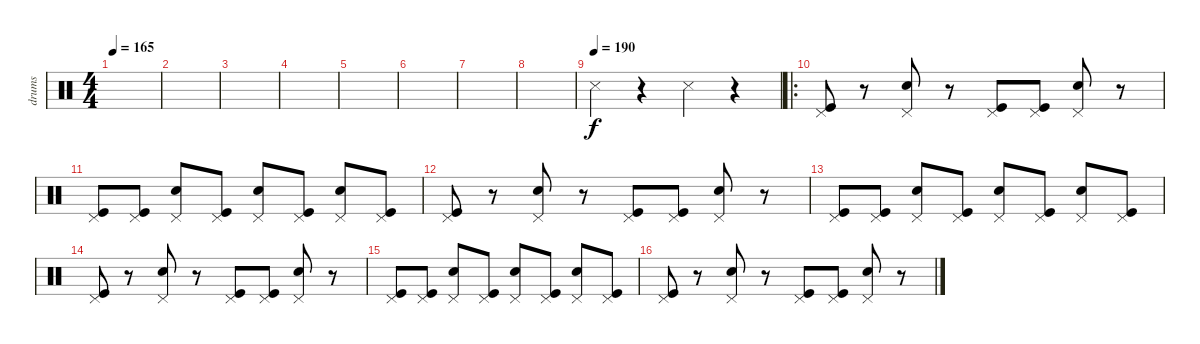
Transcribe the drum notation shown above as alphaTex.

\track ("drums" "drums") {instrument percussion}
\staff {score}
\articulation defaults
\ts (4 4)
\tempo 165
\clef neutral
\ks c
|
|
|
|
|
|
|
|
\tempo (190)
"Snare (side stick) 3".4 r.4 "Snare (side stick) 3".4{dy f} r.4 |
\ro
("Pedal Hi-Hat (hit)" "Kick (hit)").8 r.8 ("Pedal Hi-Hat (hit)" "Snare (hit) 2").8 r.8 ("Pedal Hi-Hat (hit)" "Kick (hit)").8 ("Pedal Hi-Hat (hit)" "Kick (hit)").8 ("Pedal Hi-Hat (hit)" "Snare (hit) 2").8 r.8 |
("Pedal Hi-Hat (hit)" "Kick (hit)").8 ("Pedal Hi-Hat (hit)" "Kick (hit)").8 ("Pedal Hi-Hat (hit)" "Snare (hit) 2").8 ("Pedal Hi-Hat (hit)" "Kick (hit)").8 ("Pedal Hi-Hat (hit)" "Snare (hit) 2").8 ("Pedal Hi-Hat (hit)" "Kick (hit)").8 ("Pedal Hi-Hat (hit)" "Snare (hit) 2").8 ("Pedal Hi-Hat (hit)" "Kick (hit)").8 |
("Pedal Hi-Hat (hit)" "Kick (hit)").8 r.8 ("Pedal Hi-Hat (hit)" "Snare (hit) 2").8 r.8 ("Pedal Hi-Hat (hit)" "Kick (hit)").8 ("Pedal Hi-Hat (hit)" "Kick (hit)").8 ("Pedal Hi-Hat (hit)" "Snare (hit) 2").8 r.8 |
("Pedal Hi-Hat (hit)" "Kick (hit)").8 ("Pedal Hi-Hat (hit)" "Kick (hit)").8 ("Pedal Hi-Hat (hit)" "Snare (hit) 2").8 ("Pedal Hi-Hat (hit)" "Kick (hit)").8 ("Pedal Hi-Hat (hit)" "Snare (hit) 2").8 ("Pedal Hi-Hat (hit)" "Kick (hit)").8 ("Pedal Hi-Hat (hit)" "Snare (hit) 2").8 ("Pedal Hi-Hat (hit)" "Kick (hit)").8 |
("Pedal Hi-Hat (hit)" "Kick (hit)").8 r.8 ("Pedal Hi-Hat (hit)" "Snare (hit) 2").8 r.8 ("Pedal Hi-Hat (hit)" "Kick (hit)").8 ("Pedal Hi-Hat (hit)" "Kick (hit)").8 ("Pedal Hi-Hat (hit)" "Snare (hit) 2").8 r.8 |
("Pedal Hi-Hat (hit)" "Kick (hit)").8 ("Pedal Hi-Hat (hit)" "Kick (hit)").8 ("Pedal Hi-Hat (hit)" "Snare (hit) 2").8 ("Pedal Hi-Hat (hit)" "Kick (hit)").8 ("Pedal Hi-Hat (hit)" "Snare (hit) 2").8 ("Pedal Hi-Hat (hit)" "Kick (hit)").8 ("Pedal Hi-Hat (hit)" "Snare (hit) 2").8 ("Pedal Hi-Hat (hit)" "Kick (hit)").8 |
("Pedal Hi-Hat (hit)" "Kick (hit)").8 r.8 ("Pedal Hi-Hat (hit)" "Snare (hit) 2").8 r.8 ("Pedal Hi-Hat (hit)" "Kick (hit)").8 ("Pedal Hi-Hat (hit)" "Kick (hit)").8 ("Pedal Hi-Hat (hit)" "Snare (hit) 2").8 r.8
